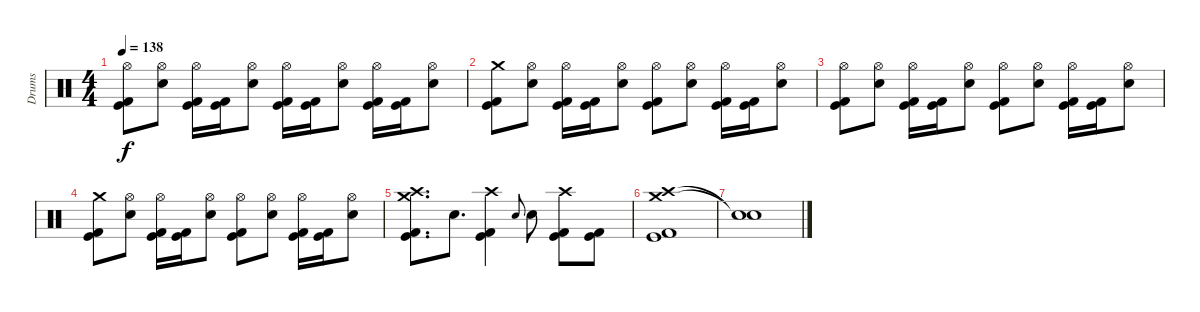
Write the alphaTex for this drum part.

\track ("Drums" "Drums") {instrument percussion}
\staff {score}
\articulation defaults
\ts (4 4)
\tempo 138
\clef neutral
\ks c
("Hi-Hat (open)" "Kick (hit)" "Kick (hit) 2").8{dy f} ("Hi-Hat (open)" "Electric Snare (hit)").8 ("Hi-Hat (open)" "Kick (hit)" "Kick (hit) 2").16 ("Kick (hit)" "Kick (hit) 2").16 ("Hi-Hat (open)" "Electric Snare (hit)").8 ("Hi-Hat (open)" "Kick (hit)" "Kick (hit) 2").16 ("Kick (hit)" "Kick (hit) 2").16 ("Hi-Hat (open)" "Electric Snare (hit)").8 ("Hi-Hat (open)" "Kick (hit)" "Kick (hit) 2").16 ("Kick (hit)" "Kick (hit) 2").16 ("Hi-Hat (open)" "Electric Snare (hit)").8 |
("Crash medium (hit)" "Kick (hit)" "Kick (hit) 2").8 ("Hi-Hat (open)" "Electric Snare (hit)").8 ("Hi-Hat (open)" "Kick (hit)" "Kick (hit) 2").16 ("Kick (hit)" "Kick (hit) 2").16 ("Hi-Hat (open)" "Electric Snare (hit)").8 ("Hi-Hat (open)" "Kick (hit)" "Kick (hit) 2").8 ("Hi-Hat (open)" "Electric Snare (hit)").8 ("Hi-Hat (open)" "Kick (hit)" "Kick (hit) 2").16 ("Kick (hit)" "Kick (hit) 2").16 ("Hi-Hat (open)" "Electric Snare (hit)").8 |
("Hi-Hat (open)" "Kick (hit)" "Kick (hit) 2").8 ("Hi-Hat (open)" "Electric Snare (hit)").8 ("Hi-Hat (open)" "Kick (hit)" "Kick (hit) 2").16 ("Kick (hit)" "Kick (hit) 2").16 ("Hi-Hat (open)" "Electric Snare (hit)").8 ("Hi-Hat (open)" "Kick (hit)" "Kick (hit) 2").8 ("Hi-Hat (open)" "Electric Snare (hit)").8 ("Hi-Hat (open)" "Kick (hit)" "Kick (hit) 2").16 ("Kick (hit)" "Kick (hit) 2").16 ("Hi-Hat (open)" "Electric Snare (hit)").8 |
("Crash medium (hit)" "Kick (hit)" "Kick (hit) 2").8 ("Hi-Hat (open)" "Electric Snare (hit)").8 ("Hi-Hat (open)" "Kick (hit)" "Kick (hit) 2").16 ("Kick (hit)" "Kick (hit) 2").16 ("Hi-Hat (open)" "Electric Snare (hit)").8 ("Hi-Hat (open)" "Kick (hit)" "Kick (hit) 2").8 ("Hi-Hat (open)" "Electric Snare (hit)").8 ("Hi-Hat (open)" "Kick (hit)" "Kick (hit) 2").16 ("Kick (hit)" "Kick (hit) 2").16 ("Hi-Hat (open)" "Electric Snare (hit)").8 |
("Crash high (hit)" "Crash medium (hit)" "Kick (hit)" "Kick (hit) 2").8{d} "Electric Snare (hit)".8{d} ("Crash high (hit)" "Kick (hit)" "Kick (hit) 2").4 "Electric Snare (hit)".8{gr onbeat} "Electric Snare (hit)".8 ("Crash high (hit)" "Kick (hit)" "Kick (hit) 2").8 ("Kick (hit)" "Kick (hit) 2").8 |
("Crash high (hit)" "Crash medium (hit)" "Kick (hit)" "Kick (hit) 2").1 |
("Snare (hit)"{t} "Snare (hit)"{t}).1
